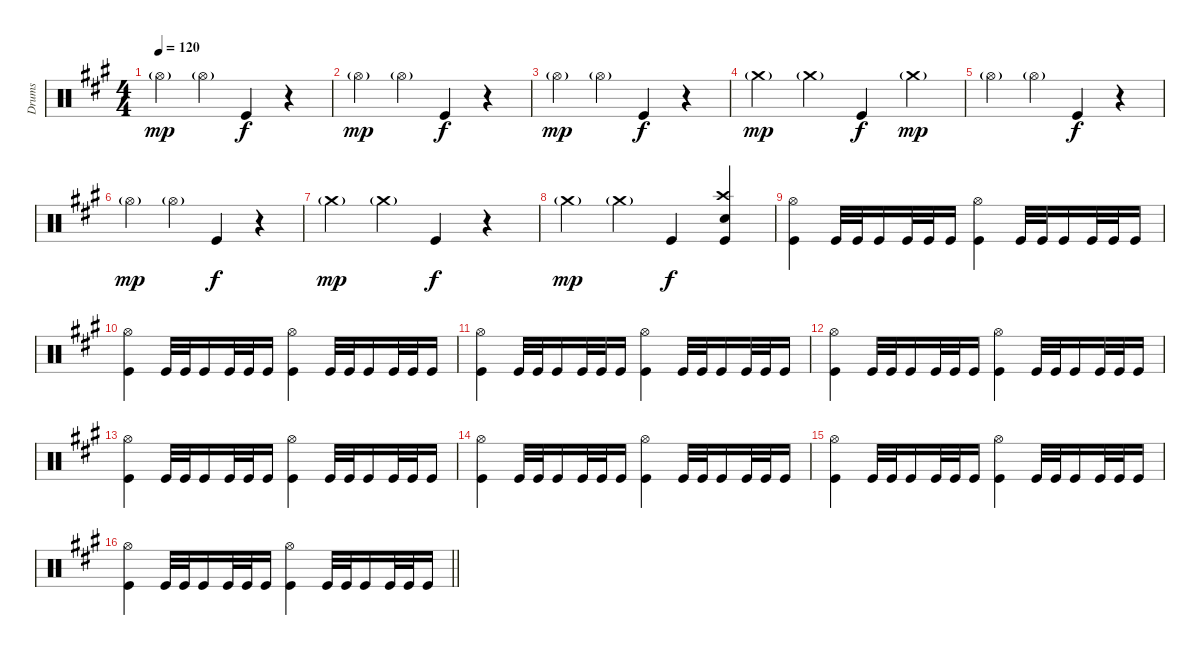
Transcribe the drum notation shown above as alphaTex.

\track ("Drums" "Drums") {instrument percussion}
\staff {score}
\articulation defaults
\ts (4 4)
\tempo 120
\clef neutral
\ks a "Hi-Hat (open)"{g}.4{dy mp} "Hi-Hat (open)"{g}.4 "Kick (hit)".4{dy f}
r.4 |
"Hi-Hat (open)"{g}.4{dy mp} "Hi-Hat (open)"{g}.4 "Kick (hit)".4{dy f} r.4 |
"Hi-Hat (open)"{g}.4{dy mp} "Hi-Hat (open)"{g}.4 "Kick (hit)".4{dy f} r.4 |
"Crash medium (hit)"{g}.4{dy mp} "Crash medium (hit)"{g}.4 "Kick (hit)".4{dy f} "Crash medium (hit)"{g}.4{dy mp} |
"Hi-Hat (open)"{g}.4 "Hi-Hat (open)"{g}.4 "Kick (hit)".4{dy f} r.4 |
"Hi-Hat (open)"{g}.4{dy mp} "Hi-Hat (open)"{g}.4 "Kick (hit)".4{dy f} r.4 |
"Crash medium (hit)"{g}.4{dy mp} "Crash medium (hit)"{g}.4 "Kick (hit)".4{dy f} r.4 |
"Crash medium (hit)"{g}.4{dy mp} "Crash medium (hit)"{g}.4 "Kick (hit)".4{dy f} ("Crash high (hit)" "Snare (hit) 2" "Kick (hit)").4 |
("Hi-Hat (open)" "Kick (hit)").4 "Kick (hit)".32 "Kick (hit)".32 "Kick (hit)".16 "Kick (hit)".32 "Kick (hit)".32 "Kick (hit)".16 ("Hi-Hat (open)" "Kick (hit)").4 "Kick (hit)".32 "Kick (hit)".32 "Kick (hit)".16 "Kick (hit)".32 "Kick (hit)".32 "Kick (hit)".16 |
("Hi-Hat (open)" "Kick (hit)").4 "Kick (hit)".32 "Kick (hit)".32 "Kick (hit)".16 "Kick (hit)".32 "Kick (hit)".32 "Kick (hit)".16 ("Hi-Hat (open)" "Kick (hit)").4 "Kick (hit)".32 "Kick (hit)".32 "Kick (hit)".16 "Kick (hit)".32 "Kick (hit)".32 "Kick (hit)".16 |
("Hi-Hat (open)" "Kick (hit)").4 "Kick (hit)".32 "Kick (hit)".32 "Kick (hit)".16 "Kick (hit)".32 "Kick (hit)".32 "Kick (hit)".16 ("Hi-Hat (open)" "Kick (hit)").4 "Kick (hit)".32 "Kick (hit)".32 "Kick (hit)".16 "Kick (hit)".32 "Kick (hit)".32 "Kick (hit)".16 |
("Hi-Hat (open)" "Kick (hit)").4 "Kick (hit)".32 "Kick (hit)".32 "Kick (hit)".16 "Kick (hit)".32 "Kick (hit)".32 "Kick (hit)".16 ("Hi-Hat (open)" "Kick (hit)").4 "Kick (hit)".32 "Kick (hit)".32 "Kick (hit)".16 "Kick (hit)".32 "Kick (hit)".32 "Kick (hit)".16 |
("Hi-Hat (open)" "Kick (hit)").4 "Kick (hit)".32 "Kick (hit)".32 "Kick (hit)".16 "Kick (hit)".32 "Kick (hit)".32 "Kick (hit)".16 ("Hi-Hat (open)" "Kick (hit)").4 "Kick (hit)".32 "Kick (hit)".32 "Kick (hit)".16 "Kick (hit)".32 "Kick (hit)".32 "Kick (hit)".16 |
("Hi-Hat (open)" "Kick (hit)").4 "Kick (hit)".32 "Kick (hit)".32 "Kick (hit)".16 "Kick (hit)".32 "Kick (hit)".32 "Kick (hit)".16 ("Hi-Hat (open)" "Kick (hit)").4 "Kick (hit)".32 "Kick (hit)".32 "Kick (hit)".16 "Kick (hit)".32 "Kick (hit)".32 "Kick (hit)".16 |
("Hi-Hat (open)" "Kick (hit)").4 "Kick (hit)".32 "Kick (hit)".32 "Kick (hit)".16 "Kick (hit)".32 "Kick (hit)".32 "Kick (hit)".16 ("Hi-Hat (open)" "Kick (hit)").4 "Kick (hit)".32 "Kick (hit)".32 "Kick (hit)".16 "Kick (hit)".32 "Kick (hit)".32 "Kick (hit)".16 |
\barLineRight lightlight
("Hi-Hat (open)" "Kick (hit)").4 "Kick (hit)".32 "Kick (hit)".32 "Kick (hit)".16 "Kick (hit)".32 "Kick (hit)".32 "Kick (hit)".16 ("Hi-Hat (open)" "Kick (hit)").4 "Kick (hit)".32 "Kick (hit)".32 "Kick (hit)".16 "Kick (hit)".32 "Kick (hit)".32 "Kick (hit)".16
